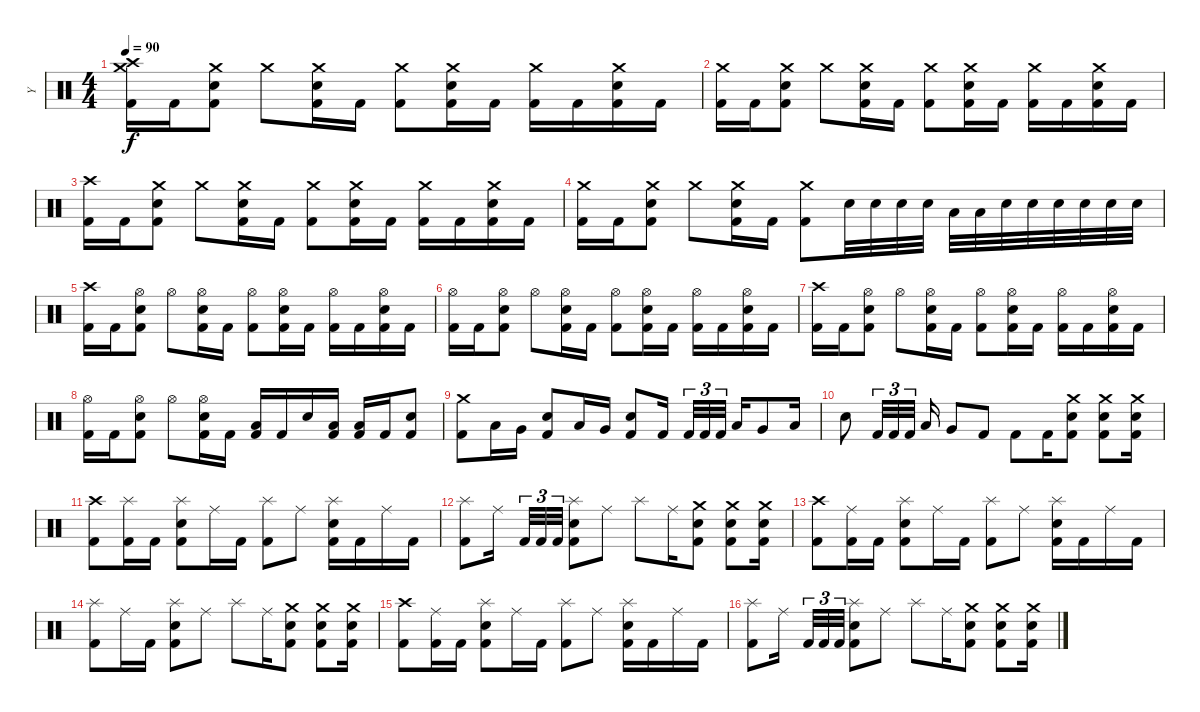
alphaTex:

\track ("Y" "Y") {instrument percussion}
\staff {score}
\articulation defaults
\ts (4 4)
\tempo 90
\clef neutral
\ks c
("Crash high (hit)" "Crash medium (hit)" "Kick (hit) 2").16{dy f} "Kick (hit) 2".16 ("Crash medium (hit)" "Electric Snare (hit)" "Kick (hit) 2").8 "Crash medium (hit)".8 ("Crash medium (hit)" "Electric Snare (hit)" "Kick (hit) 2").16 "Kick (hit) 2".16 ("Crash medium (hit)" "Kick (hit) 2").8 ("Crash medium (hit)" "Electric Snare (hit)" "Kick (hit) 2").16 "Kick (hit) 2".16 ("Crash medium (hit)" "Kick (hit) 2").16 "Kick (hit) 2".16 ("Crash medium (hit)" "Electric Snare (hit)" "Kick (hit) 2").16 "Kick (hit) 2".16 |
("Crash medium (hit)" "Kick (hit) 2").16 "Kick (hit) 2".16 ("Crash medium (hit)" "Electric Snare (hit)" "Kick (hit) 2").8 "Crash medium (hit)".8 ("Crash medium (hit)" "Electric Snare (hit)" "Kick (hit) 2").16 "Kick (hit) 2".16 ("Crash medium (hit)" "Kick (hit) 2").8 ("Crash medium (hit)" "Electric Snare (hit)" "Kick (hit) 2").16 "Kick (hit) 2".16 ("Crash medium (hit)" "Kick (hit) 2").16 "Kick (hit) 2".16 ("Crash medium (hit)" "Electric Snare (hit)" "Kick (hit) 2").16 "Kick (hit) 2".16 |
("Crash high (hit)" "Kick (hit) 2").16 "Kick (hit) 2".16 ("Crash medium (hit)" "Electric Snare (hit)" "Kick (hit) 2").8 "Crash medium (hit)".8 ("Crash medium (hit)" "Electric Snare (hit)" "Kick (hit) 2").16 "Kick (hit) 2".16 ("Crash medium (hit)" "Kick (hit) 2").8 ("Crash medium (hit)" "Electric Snare (hit)" "Kick (hit) 2").16 "Kick (hit) 2".16 ("Crash medium (hit)" "Kick (hit) 2").16 "Kick (hit) 2".16 ("Crash medium (hit)" "Electric Snare (hit)" "Kick (hit) 2").16 "Kick (hit) 2".16 |
("Crash medium (hit)" "Kick (hit) 2").16 "Kick (hit) 2".16 ("Crash medium (hit)" "Electric Snare (hit)" "Kick (hit) 2").8 "Crash medium (hit)".8 ("Crash medium (hit)" "Electric Snare (hit)" "Kick (hit) 2").16 "Kick (hit) 2".16 ("Crash medium (hit)" "Kick (hit) 2").8 "Electric Snare (hit)".32 "Electric Snare (hit)".32 "Electric Snare (hit)".32 "Electric Snare (hit)".32 "Low Tom (hit)".32 "Low Tom (hit)".32 "Electric Snare (hit)".32 "Electric Snare (hit)".32 "Electric Snare (hit)".32 "Electric Snare (hit)".32 "Electric Snare (hit)".32 "Electric Snare (hit)".32 |
("Crash high (hit)" "Kick (hit) 2").16 "Kick (hit) 2".16 ("Hi-Hat (open)" "Electric Snare (hit)" "Kick (hit) 2").8 "Hi-Hat (open)".8 ("Hi-Hat (open)" "Electric Snare (hit)" "Kick (hit) 2").16 "Kick (hit) 2".16 ("Hi-Hat (open)" "Kick (hit) 2").8 ("Hi-Hat (open)" "Electric Snare (hit)" "Kick (hit) 2").16 "Kick (hit) 2".16 ("Hi-Hat (open)" "Kick (hit) 2").16 "Kick (hit) 2".16 ("Hi-Hat (open)" "Electric Snare (hit)" "Kick (hit) 2").16 "Kick (hit) 2".16 |
("Hi-Hat (open)" "Kick (hit) 2").16 "Kick (hit) 2".16 ("Hi-Hat (open)" "Electric Snare (hit)" "Kick (hit) 2").8 "Hi-Hat (open)".8 ("Hi-Hat (open)" "Electric Snare (hit)" "Kick (hit) 2").16 "Kick (hit) 2".16 ("Hi-Hat (open)" "Kick (hit) 2").8 ("Hi-Hat (open)" "Electric Snare (hit)" "Kick (hit) 2").16 "Kick (hit) 2".16 ("Hi-Hat (open)" "Kick (hit) 2").16 "Kick (hit) 2".16 ("Hi-Hat (open)" "Electric Snare (hit)" "Kick (hit) 2").16 "Kick (hit) 2".16 |
("Crash high (hit)" "Kick (hit) 2").16 "Kick (hit) 2".16 ("Hi-Hat (open)" "Electric Snare (hit)" "Kick (hit) 2").8 "Hi-Hat (open)".8 ("Hi-Hat (open)" "Electric Snare (hit)" "Kick (hit) 2").16 "Kick (hit) 2".16 ("Hi-Hat (open)" "Kick (hit) 2").8 ("Hi-Hat (open)" "Electric Snare (hit)" "Kick (hit) 2").16 "Kick (hit) 2".16 ("Hi-Hat (open)" "Kick (hit) 2").16 "Kick (hit) 2".16 ("Hi-Hat (open)" "Electric Snare (hit)" "Kick (hit) 2").16 "Kick (hit) 2".16 |
("Hi-Hat (open)" "Kick (hit) 2").16 "Kick (hit) 2".16 ("Hi-Hat (open)" "Electric Snare (hit)" "Kick (hit) 2").8 "Hi-Hat (open)".8 ("Hi-Hat (open)" "Electric Snare (hit)" "Kick (hit) 2").16 "Kick (hit) 2".16 ("Low Tom (hit)" "Kick (hit) 2").16 "Kick (hit) 2".16 "Electric Snare (hit)".16 ("Low Tom (hit)" "Kick (hit) 2").16 ("Low Tom (hit)" "Kick (hit) 2").16 "Kick (hit) 2".16 ("Electric Snare (hit)" "Kick (hit) 2").8 |
("Crash medium (hit)" "Kick (hit) 2").8 "Low Tom (hit)".16 "Very Low Tom (hit)".16 ("Electric Snare (hit)" "Kick (hit) 2").8 "Low Tom (hit)".16 "Very Low Tom (hit)".16 ("Electric Snare (hit)" "Kick (hit) 2").8 "Kick (hit) 2".16 "Kick (hit) 2".32{tu (3 2)} "Kick (hit) 2".32{tu (3 2)} "Kick (hit) 2".32{tu (3 2)} "Low Tom (hit)".16 "Very Low Tom (hit)".8 "Low Tom (hit)".16 |
"Electric Snare (hit)".8 "Kick (hit) 2".32{tu (3 2)} "Kick (hit) 2".32{tu (3 2)} "Kick (hit) 2".32{tu (3 2)} "Low Tom (hit)".16 "Very Low Tom (hit)".8 "Kick (hit) 2".8 "Kick (hit) 2".8 "Kick (hit) 2".16 ("Crash medium (hit)" "Electric Snare (hit)" "Kick (hit) 2").8 ("Crash medium (hit)" "Electric Snare (hit)" "Kick (hit) 2").8 ("Crash medium (hit)" "Electric Snare (hit)" "Kick (hit) 2").16 |
("Crash high (hit)" "Kick (hit) 2").8 ("Splash (hit)" "Kick (hit) 2").16 "Kick (hit) 2".16 ("Splash (hit)" "Electric Snare (hit)" "Kick (hit) 2").8 "Ride (middle)".16 "Kick (hit) 2".16 ("Splash (hit)" "Kick (hit) 2").8 "Ride (middle)".8 ("Splash (hit)" "Electric Snare (hit)" "Kick (hit) 2").16 "Kick (hit) 2".16 "Ride (middle)".16 "Kick (hit) 2".16 |
("Splash (hit)" "Kick (hit) 2").8 "Ride (middle)".16 "Kick (hit) 2".32{tu (3 2)} "Kick (hit) 2".32{tu (3 2)} "Kick (hit) 2".32{tu (3 2)} ("Splash (hit)" "Electric Snare (hit)" "Kick (hit) 2").8 "Ride (middle)".8 "Splash (hit)".8 "Ride (middle)".16 ("Crash medium (hit)" "Electric Snare (hit)" "Kick (hit) 2").8 ("Crash medium (hit)" "Electric Snare (hit)" "Kick (hit) 2").8 ("Crash medium (hit)" "Electric Snare (hit)" "Kick (hit) 2").16 |
("Crash high (hit)" "Kick (hit) 2").8 ("Ride (middle)" "Kick (hit) 2").16 "Kick (hit) 2".16 ("Splash (hit)" "Electric Snare (hit)" "Kick (hit) 2").8 "Ride (middle)".16 "Kick (hit) 2".16 ("Splash (hit)" "Kick (hit) 2").8 "Ride (middle)".8 ("Splash (hit)" "Electric Snare (hit)" "Kick (hit) 2").16 "Kick (hit) 2".16 "Ride (middle)".16 "Kick (hit) 2".16 |
("Splash (hit)" "Kick (hit) 2").8 "Ride (middle)".16 "Kick (hit) 2".16 ("Splash (hit)" "Electric Snare (hit)" "Kick (hit) 2").8 "Ride (middle)".8 "Splash (hit)".8 "Ride (middle)".16 ("Crash medium (hit)" "Electric Snare (hit)" "Kick (hit) 2").8 ("Crash medium (hit)" "Electric Snare (hit)" "Kick (hit) 2").8 ("Crash medium (hit)" "Electric Snare (hit)" "Kick (hit) 2").16 |
("Crash high (hit)" "Kick (hit) 2").8 ("Ride (middle)" "Kick (hit) 2").16 "Kick (hit) 2".16 ("Splash (hit)" "Electric Snare (hit)" "Kick (hit) 2").8 "Ride (middle)".16 "Kick (hit) 2".16 ("Splash (hit)" "Kick (hit) 2").8 "Ride (middle)".8 ("Splash (hit)" "Electric Snare (hit)" "Kick (hit) 2").16 "Kick (hit) 2".16 "Ride (middle)".16 "Kick (hit) 2".16 |
("Splash (hit)" "Kick (hit) 2").8 "Ride (middle)".16 "Kick (hit) 2".32{tu (3 2)} "Kick (hit) 2".32{tu (3 2)} "Kick (hit) 2".32{tu (3 2)} ("Splash (hit)" "Electric Snare (hit)" "Kick (hit) 2").8 "Ride (middle)".8 "Splash (hit)".8 "Ride (middle)".16 ("Crash medium (hit)" "Electric Snare (hit)" "Kick (hit) 2").8 ("Crash medium (hit)" "Electric Snare (hit)" "Kick (hit) 2").8 ("Crash medium (hit)" "Electric Snare (hit)" "Kick (hit) 2").16
